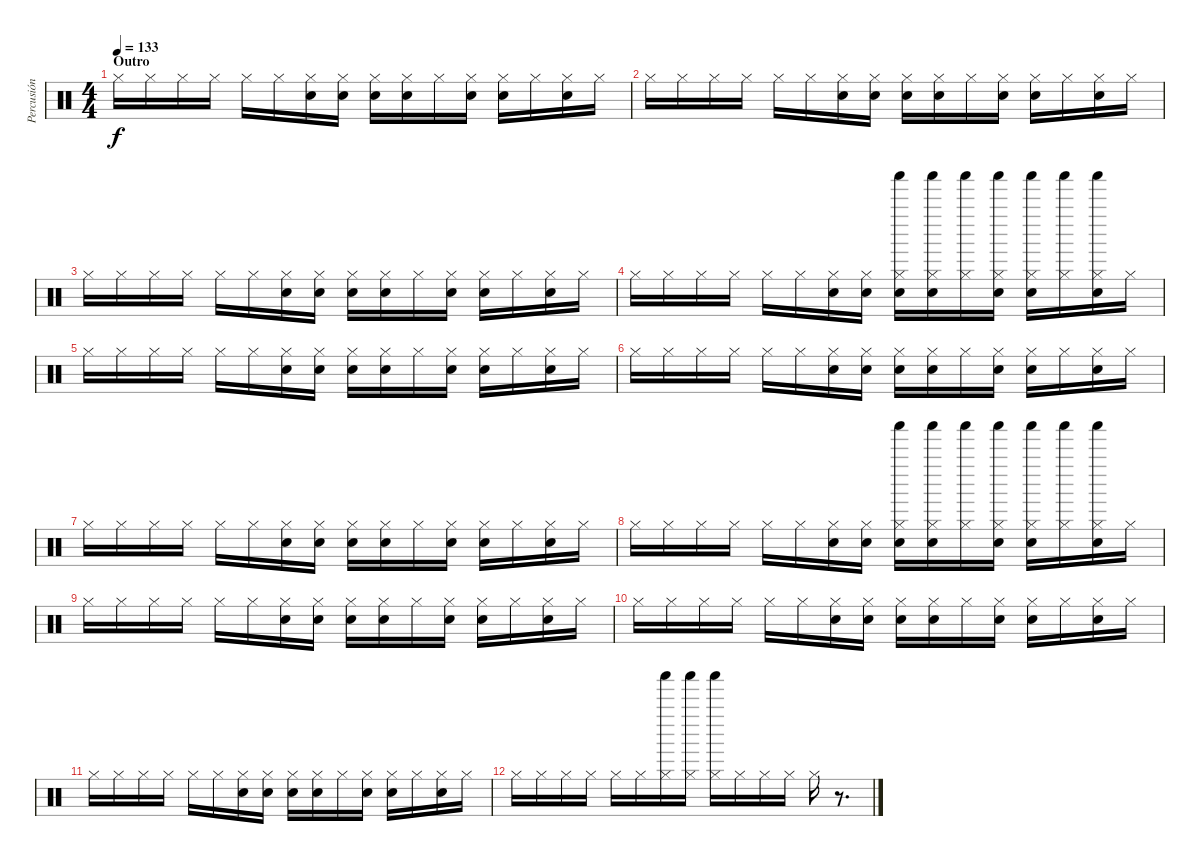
\track ("Percusión" "Percusión") {instrument percussion}
\staff {score}
\articulation defaults
\ts (4 4)
\section ("" "Outro")
\tempo 133
\clef neutral
\ks c "Hi-Hat (closed)".16{dy f} "Hi-Hat (closed)".16 "Hi-Hat (closed)".16 "Hi-Hat (closed)".16 "Hi-Hat (closed)".16 "Hi-Hat (closed)".16
("Hi-Hat (closed)" "Electric Snare (hit)").16 ("Hi-Hat (closed)" "Electric Snare (hit)").16 ("Hi-Hat (closed)" "Electric Snare (hit)").16 ("Hi-Hat (closed)" "Electric Snare (hit)").16 "Hi-Hat (closed)".16 ("Hi-Hat (closed)" "Electric Snare (hit)").16 ("Hi-Hat (closed)" "Electric Snare (hit)").16 "Hi-Hat (closed)".16 ("Hi-Hat (closed)" "Electric Snare (hit)").16 "Hi-Hat (closed)".16 |
"Hi-Hat (closed)".16 "Hi-Hat (closed)".16 "Hi-Hat (closed)".16 "Hi-Hat (closed)".16 "Hi-Hat (closed)".16 "Hi-Hat (closed)".16 ("Hi-Hat (closed)" "Electric Snare (hit)").16 ("Hi-Hat (closed)" "Electric Snare (hit)").16 ("Hi-Hat (closed)" "Electric Snare (hit)").16 ("Hi-Hat (closed)" "Electric Snare (hit)").16 "Hi-Hat (closed)".16 ("Hi-Hat (closed)" "Electric Snare (hit)").16 ("Hi-Hat (closed)" "Electric Snare (hit)").16 "Hi-Hat (closed)".16 ("Hi-Hat (closed)" "Electric Snare (hit)").16 "Hi-Hat (closed)".16 |
"Hi-Hat (closed)".16 "Hi-Hat (closed)".16 "Hi-Hat (closed)".16 "Hi-Hat (closed)".16 "Hi-Hat (closed)".16 "Hi-Hat (closed)".16 ("Hi-Hat (closed)" "Electric Snare (hit)").16 ("Hi-Hat (closed)" "Electric Snare (hit)").16 ("Hi-Hat (closed)" "Electric Snare (hit)").16 ("Hi-Hat (closed)" "Electric Snare (hit)").16 "Hi-Hat (closed)".16 ("Hi-Hat (closed)" "Electric Snare (hit)").16 ("Hi-Hat (closed)" "Electric Snare (hit)").16 "Hi-Hat (closed)".16 ("Hi-Hat (closed)" "Electric Snare (hit)").16 "Hi-Hat (closed)".16 |
"Hi-Hat (closed)".16 "Hi-Hat (closed)".16 "Hi-Hat (closed)".16 "Hi-Hat (closed)".16 "Hi-Hat (closed)".16 "Hi-Hat (closed)".16 ("Hi-Hat (closed)" "Electric Snare (hit)").16 ("Hi-Hat (closed)" "Electric Snare (hit)").16 ("Hi-Hat (closed)" "Shaker (hit)" "Electric Snare (hit)").16 ("Hi-Hat (closed)" "Shaker (hit)" "Electric Snare (hit)").16 ("Hi-Hat (closed)" "Shaker (hit)").16 ("Hi-Hat (closed)" "Shaker (hit)" "Electric Snare (hit)").16 ("Hi-Hat (closed)" "Shaker (hit)" "Electric Snare (hit)").16 ("Hi-Hat (closed)" "Shaker (hit)").16 ("Hi-Hat (closed)" "Shaker (hit)" "Electric Snare (hit)").16 "Hi-Hat (closed)".16 |
"Hi-Hat (closed)".16 "Hi-Hat (closed)".16 "Hi-Hat (closed)".16 "Hi-Hat (closed)".16 "Hi-Hat (closed)".16 "Hi-Hat (closed)".16 ("Hi-Hat (closed)" "Electric Snare (hit)").16 ("Hi-Hat (closed)" "Electric Snare (hit)").16 ("Hi-Hat (closed)" "Electric Snare (hit)").16 ("Hi-Hat (closed)" "Electric Snare (hit)").16 "Hi-Hat (closed)".16 ("Hi-Hat (closed)" "Electric Snare (hit)").16 ("Hi-Hat (closed)" "Electric Snare (hit)").16 "Hi-Hat (closed)".16 ("Hi-Hat (closed)" "Electric Snare (hit)").16 "Hi-Hat (closed)".16 |
"Hi-Hat (closed)".16 "Hi-Hat (closed)".16 "Hi-Hat (closed)".16 "Hi-Hat (closed)".16 "Hi-Hat (closed)".16 "Hi-Hat (closed)".16 ("Hi-Hat (closed)" "Electric Snare (hit)").16 ("Hi-Hat (closed)" "Electric Snare (hit)").16 ("Hi-Hat (closed)" "Electric Snare (hit)").16 ("Hi-Hat (closed)" "Electric Snare (hit)").16 "Hi-Hat (closed)".16 ("Hi-Hat (closed)" "Electric Snare (hit)").16 ("Hi-Hat (closed)" "Electric Snare (hit)").16 "Hi-Hat (closed)".16 ("Hi-Hat (closed)" "Electric Snare (hit)").16 "Hi-Hat (closed)".16 |
"Hi-Hat (closed)".16 "Hi-Hat (closed)".16 "Hi-Hat (closed)".16 "Hi-Hat (closed)".16 "Hi-Hat (closed)".16 "Hi-Hat (closed)".16 ("Hi-Hat (closed)" "Electric Snare (hit)").16 ("Hi-Hat (closed)" "Electric Snare (hit)").16 ("Hi-Hat (closed)" "Electric Snare (hit)").16 ("Hi-Hat (closed)" "Electric Snare (hit)").16 "Hi-Hat (closed)".16 ("Hi-Hat (closed)" "Electric Snare (hit)").16 ("Hi-Hat (closed)" "Electric Snare (hit)").16 "Hi-Hat (closed)".16 ("Hi-Hat (closed)" "Electric Snare (hit)").16 "Hi-Hat (closed)".16 |
"Hi-Hat (closed)".16 "Hi-Hat (closed)".16 "Hi-Hat (closed)".16 "Hi-Hat (closed)".16 "Hi-Hat (closed)".16 "Hi-Hat (closed)".16 ("Hi-Hat (closed)" "Electric Snare (hit)").16 ("Hi-Hat (closed)" "Electric Snare (hit)").16 ("Hi-Hat (closed)" "Shaker (hit)" "Electric Snare (hit)").16 ("Hi-Hat (closed)" "Shaker (hit)" "Electric Snare (hit)").16 ("Hi-Hat (closed)" "Shaker (hit)").16 ("Hi-Hat (closed)" "Shaker (hit)" "Electric Snare (hit)").16 ("Hi-Hat (closed)" "Shaker (hit)" "Electric Snare (hit)").16 ("Hi-Hat (closed)" "Shaker (hit)").16 ("Hi-Hat (closed)" "Shaker (hit)" "Electric Snare (hit)").16 "Hi-Hat (closed)".16 |
"Hi-Hat (closed)".16 "Hi-Hat (closed)".16 "Hi-Hat (closed)".16 "Hi-Hat (closed)".16 "Hi-Hat (closed)".16 "Hi-Hat (closed)".16 ("Hi-Hat (closed)" "Electric Snare (hit)").16 ("Hi-Hat (closed)" "Electric Snare (hit)").16 ("Hi-Hat (closed)" "Electric Snare (hit)").16 ("Hi-Hat (closed)" "Electric Snare (hit)").16 "Hi-Hat (closed)".16 ("Hi-Hat (closed)" "Electric Snare (hit)").16 ("Hi-Hat (closed)" "Electric Snare (hit)").16 "Hi-Hat (closed)".16 ("Hi-Hat (closed)" "Electric Snare (hit)").16 "Hi-Hat (closed)".16 |
"Hi-Hat (closed)".16 "Hi-Hat (closed)".16 "Hi-Hat (closed)".16 "Hi-Hat (closed)".16 "Hi-Hat (closed)".16 "Hi-Hat (closed)".16 ("Hi-Hat (closed)" "Electric Snare (hit)").16 ("Hi-Hat (closed)" "Electric Snare (hit)").16 ("Hi-Hat (closed)" "Electric Snare (hit)").16 ("Hi-Hat (closed)" "Electric Snare (hit)").16 "Hi-Hat (closed)".16 ("Hi-Hat (closed)" "Electric Snare (hit)").16 ("Hi-Hat (closed)" "Electric Snare (hit)").16 "Hi-Hat (closed)".16 ("Hi-Hat (closed)" "Electric Snare (hit)").16 "Hi-Hat (closed)".16 |
"Hi-Hat (closed)".16 "Hi-Hat (closed)".16 "Hi-Hat (closed)".16 "Hi-Hat (closed)".16 "Hi-Hat (closed)".16 "Hi-Hat (closed)".16 ("Hi-Hat (closed)" "Electric Snare (hit)").16 ("Hi-Hat (closed)" "Electric Snare (hit)").16 ("Hi-Hat (closed)" "Electric Snare (hit)").16 ("Hi-Hat (closed)" "Electric Snare (hit)").16 "Hi-Hat (closed)".16 ("Hi-Hat (closed)" "Electric Snare (hit)").16 ("Hi-Hat (closed)" "Electric Snare (hit)").16 "Hi-Hat (closed)".16 ("Hi-Hat (closed)" "Electric Snare (hit)").16 "Hi-Hat (closed)".16 |
"Hi-Hat (closed)".16 "Hi-Hat (closed)".16 "Hi-Hat (closed)".16 "Hi-Hat (closed)".16 "Hi-Hat (closed)".16 "Hi-Hat (closed)".16 ("Hi-Hat (closed)" "Shaker (hit)").16 ("Hi-Hat (closed)" "Shaker (hit)").16 ("Hi-Hat (closed)" "Shaker (hit)").16 "Hi-Hat (closed)".16 "Hi-Hat (closed)".16 "Hi-Hat (closed)".16 "Hi-Hat (closed)".16 r.8{d}
